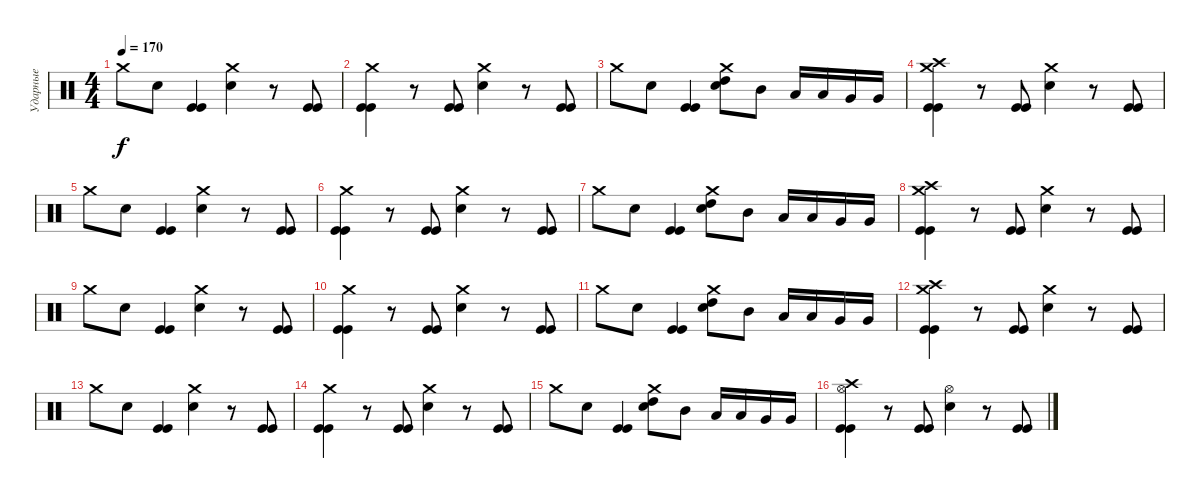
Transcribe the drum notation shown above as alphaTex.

\track ("Ударные" "Ударные") {instrument percussion}
\staff {score}
\articulation defaults
\ts (4 4)
\tempo 170
\clef neutral
\ks c "Crash medium (hit)".8{dy f} "Electric Snare (hit)".8
("Kick (hit)" "Kick (hit)").4 ("Crash medium (hit)" "Electric Snare (hit)").4 r.8 ("Kick (hit)" "Kick (hit)").8 |
("Crash medium (hit)" "Kick (hit)" "Kick (hit)").4 r.8 ("Kick (hit)" "Kick (hit)").8 ("Crash medium (hit)" "Electric Snare (hit)").4 r.8 ("Kick (hit)" "Kick (hit)").8 |
"Crash medium (hit)".8 "Electric Snare (hit)".8 ("Kick (hit)" "Kick (hit)").4 ("Crash medium (hit)" "Electric Snare (hit)" "High Tom (hit)").8 "Mid Tom (hit)".8 "Low Tom (hit)".16 "Low Tom (hit)".16 "Very Low Tom (hit)".16 "Very Low Tom (hit)".16 |
("Crash high (hit)" "Crash medium (hit)" "Kick (hit)" "Kick (hit)").4 r.8 ("Kick (hit)" "Kick (hit)").8 ("Crash medium (hit)" "Electric Snare (hit)").4 r.8 ("Kick (hit)" "Kick (hit)").8 |
"Crash medium (hit)".8 "Electric Snare (hit)".8 ("Kick (hit)" "Kick (hit)").4 ("Crash medium (hit)" "Electric Snare (hit)").4 r.8 ("Kick (hit)" "Kick (hit)").8 |
("Crash medium (hit)" "Kick (hit)" "Kick (hit)").4 r.8 ("Kick (hit)" "Kick (hit)").8 ("Crash medium (hit)" "Electric Snare (hit)").4 r.8 ("Kick (hit)" "Kick (hit)").8 |
"Crash medium (hit)".8 "Electric Snare (hit)".8 ("Kick (hit)" "Kick (hit)").4 ("Crash medium (hit)" "Electric Snare (hit)" "High Tom (hit)").8 "Mid Tom (hit)".8 "Low Tom (hit)".16 "Low Tom (hit)".16 "Very Low Tom (hit)".16 "Very Low Tom (hit)".16 |
("Crash high (hit)" "Crash medium (hit)" "Kick (hit)" "Kick (hit)").4 r.8 ("Kick (hit)" "Kick (hit)").8 ("Crash medium (hit)" "Electric Snare (hit)").4 r.8 ("Kick (hit)" "Kick (hit)").8 |
"Crash medium (hit)".8 "Electric Snare (hit)".8 ("Kick (hit)" "Kick (hit)").4 ("Crash medium (hit)" "Electric Snare (hit)").4 r.8 ("Kick (hit)" "Kick (hit)").8 |
("Crash medium (hit)" "Kick (hit)" "Kick (hit)").4 r.8 ("Kick (hit)" "Kick (hit)").8 ("Crash medium (hit)" "Electric Snare (hit)").4 r.8 ("Kick (hit)" "Kick (hit)").8 |
"Crash medium (hit)".8 "Electric Snare (hit)".8 ("Kick (hit)" "Kick (hit)").4 ("Crash medium (hit)" "Electric Snare (hit)" "High Tom (hit)").8 "Mid Tom (hit)".8 "Low Tom (hit)".16 "Low Tom (hit)".16 "Very Low Tom (hit)".16 "Very Low Tom (hit)".16 |
("Crash high (hit)" "Crash medium (hit)" "Kick (hit)" "Kick (hit)").4 r.8 ("Kick (hit)" "Kick (hit)").8 ("Crash medium (hit)" "Electric Snare (hit)").4 r.8 ("Kick (hit)" "Kick (hit)").8 |
"Crash medium (hit)".8 "Electric Snare (hit)".8 ("Kick (hit)" "Kick (hit)").4 ("Crash medium (hit)" "Electric Snare (hit)").4 r.8 ("Kick (hit)" "Kick (hit)").8 |
("Crash medium (hit)" "Kick (hit)" "Kick (hit)").4 r.8 ("Kick (hit)" "Kick (hit)").8 ("Crash medium (hit)" "Electric Snare (hit)").4 r.8 ("Kick (hit)" "Kick (hit)").8 |
"Crash medium (hit)".8 "Electric Snare (hit)".8 ("Kick (hit)" "Kick (hit)").4 ("Crash medium (hit)" "Electric Snare (hit)" "High Tom (hit)").8 "Mid Tom (hit)".8 "Low Tom (hit)".16 "Low Tom (hit)".16 "Very Low Tom (hit)".16 "Very Low Tom (hit)".16 |
("Crash high (hit)" "Hi-Hat (open)" "Kick (hit)" "Kick (hit)").4 r.8 ("Kick (hit)" "Kick (hit)").8 ("Hi-Hat (open)" "Electric Snare (hit)").4 r.8 ("Kick (hit)" "Kick (hit)").8
